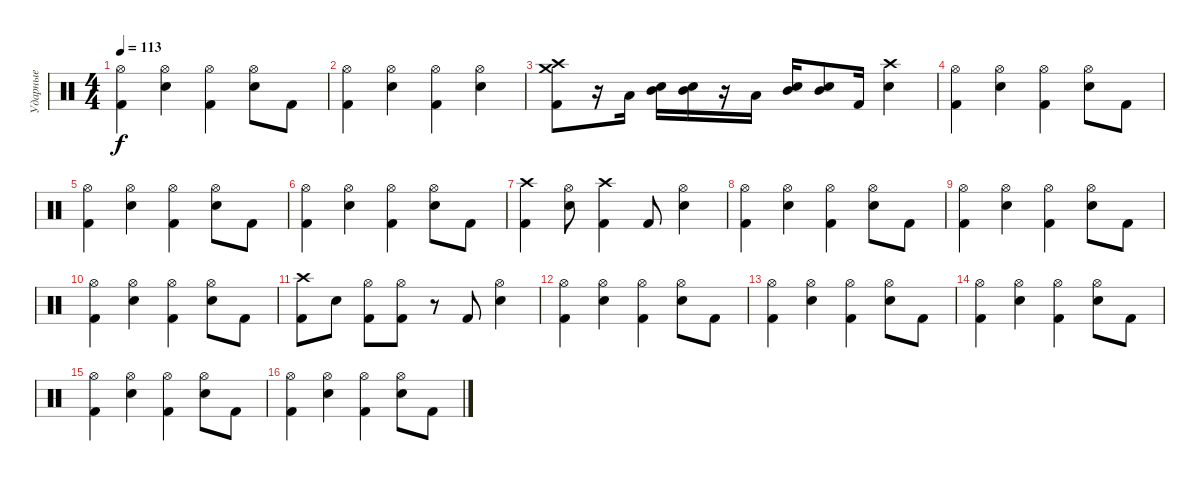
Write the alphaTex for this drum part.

\track ("Ударные" "Ударные") {instrument percussion}
\staff {score}
\articulation defaults
\ts (4 4)
\tempo 113
\clef neutral
\ks c
("Kick (hit) 2" "Hi-Hat (open)").4{dy f} ("Electric Snare (hit)" "Hi-Hat (open)").4 ("Kick (hit) 2" "Hi-Hat (open)").4 ("Electric Snare (hit)" "Hi-Hat (open)").8 "Kick (hit) 2".8 |
("Kick (hit) 2" "Hi-Hat (open)").4 ("Electric Snare (hit)" "Hi-Hat (open)").4 ("Kick (hit) 2" "Hi-Hat (open)").4 ("Electric Snare (hit)" "Hi-Hat (open)").4 |
("Kick (hit) 2" "Crash high (hit)" "Crash medium (hit)").8 r.16 "Low Tom (hit)".16 ("Mid Tom (hit)" "Electric Snare (hit)").16 ("Mid Tom (hit)" "Electric Snare (hit)").16 r.16 "Low Tom (hit)".16 ("Mid Tom (hit)" "Electric Snare (hit)").16 ("Mid Tom (hit)" "Electric Snare (hit)").8 "Kick (hit) 2".16 ("Electric Snare (hit)" "Crash high (hit)").4 |
("Kick (hit) 2" "Hi-Hat (open)").4 ("Electric Snare (hit)" "Hi-Hat (open)").4 ("Kick (hit) 2" "Hi-Hat (open)").4 ("Electric Snare (hit)" "Hi-Hat (open)").8 "Kick (hit) 2".8 |
("Kick (hit) 2" "Hi-Hat (open)").4 ("Electric Snare (hit)" "Hi-Hat (open)").4 ("Kick (hit) 2" "Hi-Hat (open)").4 ("Electric Snare (hit)" "Hi-Hat (open)").8 "Kick (hit) 2".8 |
("Kick (hit) 2" "Hi-Hat (open)").4 ("Electric Snare (hit)" "Hi-Hat (open)").4 ("Kick (hit) 2" "Hi-Hat (open)").4 ("Electric Snare (hit)" "Hi-Hat (open)").8 "Kick (hit) 2".8 |
("Kick (hit) 2" "Crash high (hit)").4 ("Electric Snare (hit)" "Hi-Hat (open)").8 ("Kick (hit) 2" "Crash high (hit)").4 "Kick (hit) 2".8 ("Electric Snare (hit)" "Hi-Hat (open)").4 |
("Kick (hit) 2" "Hi-Hat (open)").4 ("Electric Snare (hit)" "Hi-Hat (open)").4 ("Kick (hit) 2" "Hi-Hat (open)").4 ("Electric Snare (hit)" "Hi-Hat (open)").8 "Kick (hit) 2".8 |
("Kick (hit) 2" "Hi-Hat (open)").4 ("Electric Snare (hit)" "Hi-Hat (open)").4 ("Kick (hit) 2" "Hi-Hat (open)").4 ("Electric Snare (hit)" "Hi-Hat (open)").8 "Kick (hit) 2".8 |
("Kick (hit) 2" "Hi-Hat (open)").4 ("Electric Snare (hit)" "Hi-Hat (open)").4 ("Kick (hit) 2" "Hi-Hat (open)").4 ("Electric Snare (hit)" "Hi-Hat (open)").8 "Kick (hit) 2".8 |
("Kick (hit) 2" "Crash high (hit)").8 "Electric Snare (hit)".8 ("Kick (hit) 2" "Hi-Hat (open)").8 ("Kick (hit) 2" "Hi-Hat (open)").8 r.8 "Kick (hit) 2".8 ("Electric Snare (hit)" "Hi-Hat (open)").4 |
("Kick (hit) 2" "Hi-Hat (open)").4 ("Electric Snare (hit)" "Hi-Hat (open)").4 ("Kick (hit) 2" "Hi-Hat (open)").4 ("Electric Snare (hit)" "Hi-Hat (open)").8 "Kick (hit) 2".8 |
("Kick (hit) 2" "Hi-Hat (open)").4 ("Electric Snare (hit)" "Hi-Hat (open)").4 ("Kick (hit) 2" "Hi-Hat (open)").4 ("Electric Snare (hit)" "Hi-Hat (open)").8 "Kick (hit) 2".8 |
("Kick (hit) 2" "Hi-Hat (open)").4 ("Electric Snare (hit)" "Hi-Hat (open)").4 ("Kick (hit) 2" "Hi-Hat (open)").4 ("Electric Snare (hit)" "Hi-Hat (open)").8 "Kick (hit) 2".8 |
("Kick (hit) 2" "Hi-Hat (open)").4 ("Electric Snare (hit)" "Hi-Hat (open)").4 ("Kick (hit) 2" "Hi-Hat (open)").4 ("Electric Snare (hit)" "Hi-Hat (open)").8 "Kick (hit) 2".8 |
("Kick (hit) 2" "Hi-Hat (open)").4 ("Electric Snare (hit)" "Hi-Hat (open)").4 ("Kick (hit) 2" "Hi-Hat (open)").4 ("Electric Snare (hit)" "Hi-Hat (open)").8 "Kick (hit) 2".8
